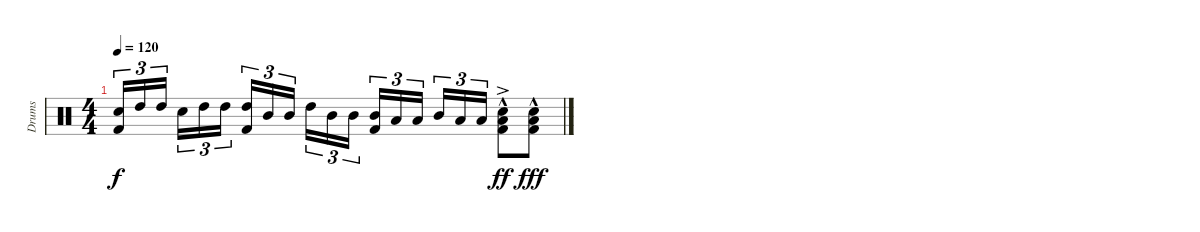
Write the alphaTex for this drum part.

\track ("Drums" "Drums") {instrument percussion}
\staff {score}
\articulation defaults
\ts (4 4)
\tempo 120
\clef neutral
\ks c
("Snare (hit) 2" "Kick (hit) 2").16{tu (3 2) dy f} "High Tom (hit)".16{tu (3 2)} "High Tom (hit)".16{tu (3 2) beam splitsecondary} "Snare (hit) 2".16{tu (3 2)} "High Tom (hit)".16{tu (3 2)} "High Tom (hit)".16{tu (3 2)} ("High Tom (hit)" "Kick (hit) 2").16{tu (3 2)} "Mid Tom (hit)".16{tu (3 2)} "Mid Tom (hit)".16{tu (3 2) beam splitsecondary} "High Tom (hit)".16{tu (3 2)} "Mid Tom (hit)".16{tu (3 2)} "Mid Tom (hit)".16{tu (3 2)} ("Mid Tom (hit)" "Kick (hit) 2").16{tu (3 2)} "Low Tom (hit)".16{tu (3 2)} "Low Tom (hit)".16{tu (3 2) beam splitsecondary} "Mid Tom (hit)".16{tu (3 2)} "Low Tom (hit)".16{tu (3 2)} "Low Tom (hit)".16{tu (3 2)} ("Low Tom (hit)"{hac} "Snare (hit) 2"{ac} "Kick (hit) 2").8{dy ff} ("Low Tom (hit)"{hac} "Snare (hit) 2"{hac} "Kick (hit) 2").8{dy fff}
